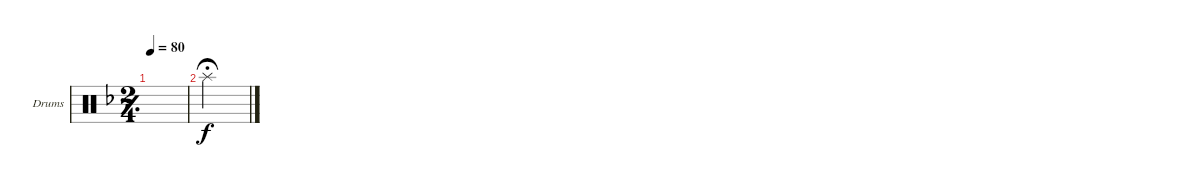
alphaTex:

\defaultSystemsLayout 4
\bracketExtendMode groupsimilarinstruments
\firstSystemTrackNameOrientation horizontal
\otherSystemsTrackNameOrientation horizontal
\track ("Drumkit" "Drums") {instrument percussion}
\staff {score}
\articulation defaults
\ts (2 4)
\tempo 80
\clef neutral
\simile simple
\scale
0.333333
\ks f
|
\simile none "Splash (hit)".2{dy f fermata (medium 0.3)}
